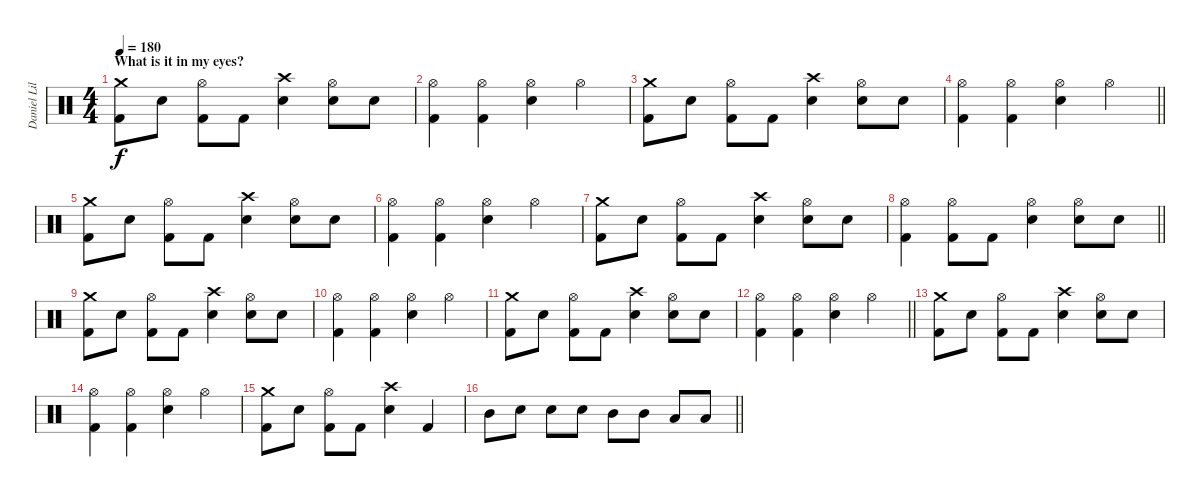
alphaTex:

\track ("Daniel Liljekvist" "Daniel Lil") {instrument percussion}
\staff {score}
\articulation defaults
\ts (4 4)
\section ("" "What is it in my eyes?")
\tempo 180
\clef neutral
\ks c
("Crash medium (hit)" "Kick (hit) 2").8{dy f} "Electric Snare (hit)".8 ("Hi-Hat (open)" "Kick (hit) 2").8 "Kick (hit) 2".8 ("Crash high (hit)" "Electric Snare (hit)").4 ("Hi-Hat (open)" "Electric Snare (hit)").8 "Electric Snare (hit)".8 |
("Hi-Hat (open)" "Kick (hit) 2").4 ("Hi-Hat (open)" "Kick (hit) 2").4 ("Hi-Hat (open)" "Electric Snare (hit)").4 "Hi-Hat (open)".4 |
("Crash medium (hit)" "Kick (hit) 2").8 "Electric Snare (hit)".8 ("Hi-Hat (open)" "Kick (hit) 2").8 "Kick (hit) 2".8 ("Crash high (hit)" "Electric Snare (hit)").4 ("Hi-Hat (open)" "Electric Snare (hit)").8 "Electric Snare (hit)".8 |
\barLineRight lightlight
("Hi-Hat (open)" "Kick (hit) 2").4 ("Hi-Hat (open)" "Kick (hit) 2").4 ("Hi-Hat (open)" "Electric Snare (hit)").4 "Hi-Hat (open)".4 |
("Crash medium (hit)" "Kick (hit) 2").8 "Electric Snare (hit)".8 ("Hi-Hat (open)" "Kick (hit) 2").8 "Kick (hit) 2".8 ("Crash high (hit)" "Electric Snare (hit)").4 ("Hi-Hat (open)" "Electric Snare (hit)").8 "Electric Snare (hit)".8 |
("Hi-Hat (open)" "Kick (hit) 2").4 ("Hi-Hat (open)" "Kick (hit) 2").4 ("Hi-Hat (open)" "Electric Snare (hit)").4 "Hi-Hat (open)".4 |
("Crash medium (hit)" "Kick (hit) 2").8 "Electric Snare (hit)".8 ("Hi-Hat (open)" "Kick (hit) 2").8 "Kick (hit) 2".8 ("Crash high (hit)" "Electric Snare (hit)").4 ("Hi-Hat (open)" "Electric Snare (hit)").8 "Electric Snare (hit)".8 |
\barLineRight lightlight
("Hi-Hat (open)" "Kick (hit) 2").4 ("Hi-Hat (open)" "Kick (hit) 2").8 "Kick (hit) 2".8 ("Hi-Hat (open)" "Electric Snare (hit)").4 ("Hi-Hat (open)" "Electric Snare (hit)").8 "Electric Snare (hit)".8 |
("Crash medium (hit)" "Kick (hit) 2").8 "Electric Snare (hit)".8 ("Hi-Hat (open)" "Kick (hit) 2").8 "Kick (hit) 2".8 ("Crash high (hit)" "Electric Snare (hit)").4 ("Hi-Hat (open)" "Electric Snare (hit)").8 "Electric Snare (hit)".8 |
("Hi-Hat (open)" "Kick (hit) 2").4 ("Hi-Hat (open)" "Kick (hit) 2").4 ("Hi-Hat (open)" "Electric Snare (hit)").4 "Hi-Hat (open)".4 |
("Crash medium (hit)" "Kick (hit) 2").8 "Electric Snare (hit)".8 ("Hi-Hat (open)" "Kick (hit) 2").8 "Kick (hit) 2".8 ("Crash high (hit)" "Electric Snare (hit)").4 ("Hi-Hat (open)" "Electric Snare (hit)").8 "Electric Snare (hit)".8 |
\barLineRight lightlight
("Hi-Hat (open)" "Kick (hit) 2").4 ("Hi-Hat (open)" "Kick (hit) 2").4 ("Hi-Hat (open)" "Electric Snare (hit)").4 "Hi-Hat (open)".4 |
("Crash medium (hit)" "Kick (hit) 2").8 "Electric Snare (hit)".8 ("Hi-Hat (open)" "Kick (hit) 2").8 "Kick (hit) 2".8 ("Crash high (hit)" "Electric Snare (hit)").4 ("Hi-Hat (open)" "Electric Snare (hit)").8 "Electric Snare (hit)".8 |
("Hi-Hat (open)" "Kick (hit) 2").4 ("Hi-Hat (open)" "Kick (hit) 2").4 ("Hi-Hat (open)" "Electric Snare (hit)").4 "Hi-Hat (open)".4 |
("Crash medium (hit)" "Kick (hit) 2").8 "Electric Snare (hit)".8 ("Hi-Hat (open)" "Kick (hit) 2").8 "Kick (hit) 2".8 ("Crash high (hit)" "Electric Snare (hit)").4 "Kick (hit) 2".4 |
\barLineRight lightlight "Mid Tom (hit)".8 "Electric Snare (hit)".8 "Electric Snare (hit)".8 "Electric Snare (hit)".8 "Mid Tom (hit)".8 "Mid Tom (hit)".8 "Low Tom (hit)".8 "Low Tom (hit)".8
